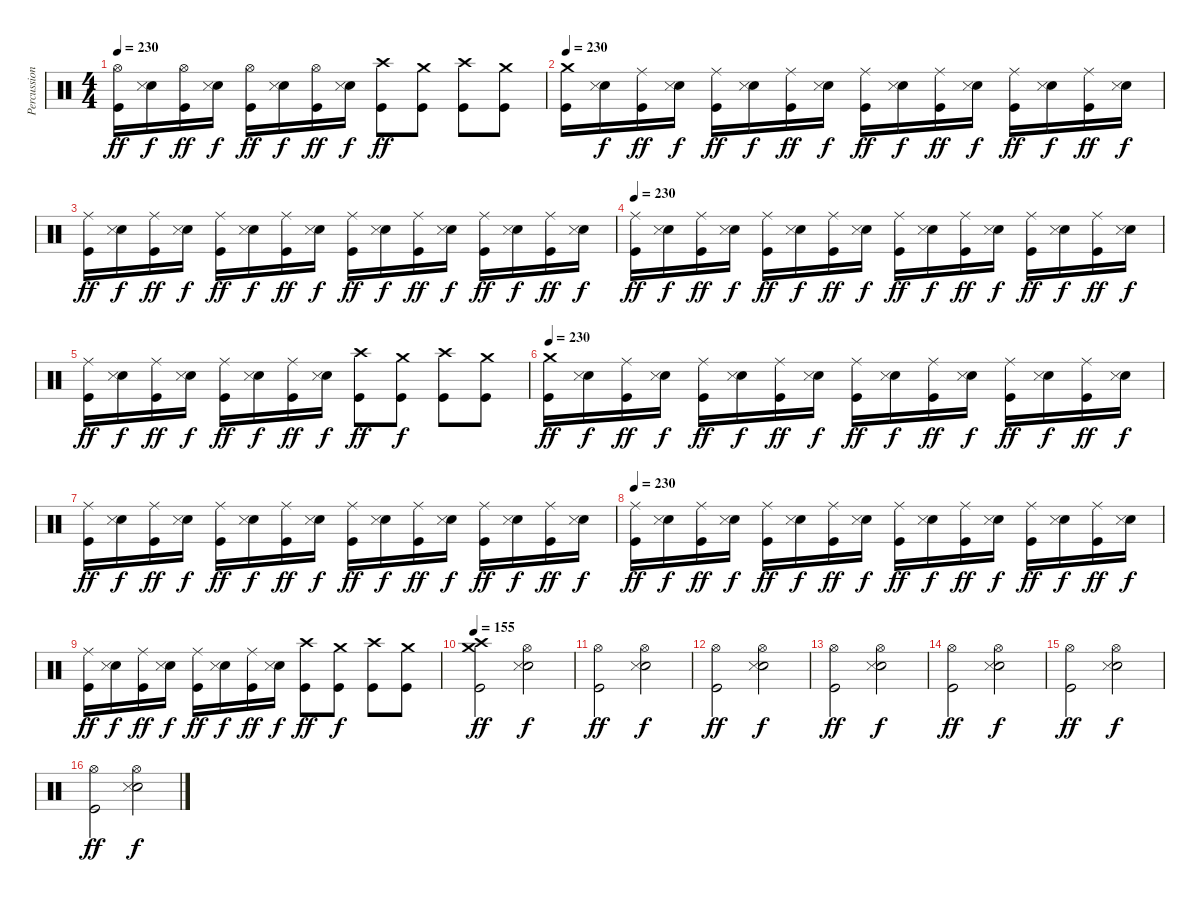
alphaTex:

\track ("Percussions" "Percussion") {instrument percussion}
\staff {score}
\articulation defaults
\ts (4 4)
\tempo 230
\clef neutral
\ks c
("Hi-Hat (open)" "Kick (hit)").16{dy ff} ("Electric Snare (hit)" "Snare (side stick) 3").16{dy f} ("Hi-Hat (open)" "Kick (hit)").16{dy ff} ("Electric Snare (hit)" "Snare (side stick) 3").16{dy f} ("Hi-Hat (open)" "Kick (hit)").16{dy ff} ("Electric Snare (hit)" "Snare (side stick) 3").16{dy f} ("Hi-Hat (open)" "Kick (hit)").16{dy ff} ("Electric Snare (hit)" "Snare (side stick) 3").16{dy f} ("Crash high (hit)" "Kick (hit)").8{dy ff} ("Crash medium (hit)" "Kick (hit)").8 ("Crash high (hit)" "Kick (hit)").8 ("Crash medium (hit)" "Kick (hit)").8 |
\tempo 230
("Crash medium (hit)" "Kick (hit)").16 ("Electric Snare (hit)" "Snare (side stick) 3").16{dy f} ("Ride (middle)" "Kick (hit)").16{dy ff} ("Electric Snare (hit)" "Snare (side stick) 3").16{dy f} ("Ride (middle)" "Kick (hit)").16{dy ff} ("Electric Snare (hit)" "Snare (side stick) 3").16{dy f} ("Ride (middle)" "Kick (hit)").16{dy ff} ("Electric Snare (hit)" "Snare (side stick) 3").16{dy f} ("Ride (middle)" "Kick (hit)").16{dy ff} ("Electric Snare (hit)" "Snare (side stick) 3").16{dy f} ("Ride (middle)" "Kick (hit)").16{dy ff} ("Electric Snare (hit)" "Snare (side stick) 3").16{dy f} ("Ride (middle)" "Kick (hit)").16{dy ff} ("Electric Snare (hit)" "Snare (side stick) 3").16{dy f} ("Ride (middle)" "Kick (hit)").16{dy ff} ("Electric Snare (hit)" "Snare (side stick) 3").16{dy f} |
("Ride (middle)" "Kick (hit)").16{dy ff} ("Electric Snare (hit)" "Snare (side stick) 3").16{dy f} ("Ride (middle)" "Kick (hit)").16{dy ff} ("Electric Snare (hit)" "Snare (side stick) 3").16{dy f} ("Ride (middle)" "Kick (hit)").16{dy ff} ("Electric Snare (hit)" "Snare (side stick) 3").16{dy f} ("Ride (middle)" "Kick (hit)").16{dy ff} ("Electric Snare (hit)" "Snare (side stick) 3").16{dy f} ("Ride (middle)" "Kick (hit)").16{dy ff} ("Electric Snare (hit)" "Snare (side stick) 3").16{dy f} ("Ride (middle)" "Kick (hit)").16{dy ff} ("Electric Snare (hit)" "Snare (side stick) 3").16{dy f} ("Ride (middle)" "Kick (hit)").16{dy ff} ("Electric Snare (hit)" "Snare (side stick) 3").16{dy f} ("Ride (middle)" "Kick (hit)").16{dy ff} ("Electric Snare (hit)" "Snare (side stick) 3").16{dy f} |
\tempo 230
("Ride (middle)" "Kick (hit)").16{dy ff} ("Electric Snare (hit)" "Snare (side stick) 3").16{dy f} ("Ride (middle)" "Kick (hit)").16{dy ff} ("Electric Snare (hit)" "Snare (side stick) 3").16{dy f} ("Ride (middle)" "Kick (hit)").16{dy ff} ("Electric Snare (hit)" "Snare (side stick) 3").16{dy f} ("Ride (middle)" "Kick (hit)").16{dy ff} ("Electric Snare (hit)" "Snare (side stick) 3").16{dy f} ("Ride (middle)" "Kick (hit)").16{dy ff} ("Electric Snare (hit)" "Snare (side stick) 3").16{dy f} ("Ride (middle)" "Kick (hit)").16{dy ff} ("Electric Snare (hit)" "Snare (side stick) 3").16{dy f} ("Ride (middle)" "Kick (hit)").16{dy ff} ("Electric Snare (hit)" "Snare (side stick) 3").16{dy f} ("Ride (middle)" "Kick (hit)").16{dy ff} ("Electric Snare (hit)" "Snare (side stick) 3").16{dy f} |
("Ride (middle)" "Kick (hit)").16{dy ff} ("Electric Snare (hit)" "Snare (side stick) 3").16{dy f} ("Ride (middle)" "Kick (hit)").16{dy ff} ("Electric Snare (hit)" "Snare (side stick) 3").16{dy f} ("Ride (middle)" "Kick (hit)").16{dy ff} ("Electric Snare (hit)" "Snare (side stick) 3").16{dy f} ("Ride (middle)" "Kick (hit)").16{dy ff} ("Electric Snare (hit)" "Snare (side stick) 3").16{dy f} ("Crash high (hit)" "Kick (hit)").8{dy ff} ("Crash medium (hit)" "Kick (hit)").8{dy f} ("Crash high (hit)" "Kick (hit)").8 ("Crash medium (hit)" "Kick (hit)").8 |
\tempo 230
("Crash medium (hit)" "Kick (hit)").16{dy ff} ("Electric Snare (hit)" "Snare (side stick) 3").16{dy f} ("Ride (middle)" "Kick (hit)").16{dy ff} ("Electric Snare (hit)" "Snare (side stick) 3").16{dy f} ("Ride (middle)" "Kick (hit)").16{dy ff} ("Electric Snare (hit)" "Snare (side stick) 3").16{dy f} ("Ride (middle)" "Kick (hit)").16{dy ff} ("Electric Snare (hit)" "Snare (side stick) 3").16{dy f} ("Ride (middle)" "Kick (hit)").16{dy ff} ("Electric Snare (hit)" "Snare (side stick) 3").16{dy f} ("Ride (middle)" "Kick (hit)").16{dy ff} ("Electric Snare (hit)" "Snare (side stick) 3").16{dy f} ("Ride (middle)" "Kick (hit)").16{dy ff} ("Electric Snare (hit)" "Snare (side stick) 3").16{dy f} ("Ride (middle)" "Kick (hit)").16{dy ff} ("Electric Snare (hit)" "Snare (side stick) 3").16{dy f} |
("Ride (middle)" "Kick (hit)").16{dy ff} ("Electric Snare (hit)" "Snare (side stick) 3").16{dy f} ("Ride (middle)" "Kick (hit)").16{dy ff} ("Electric Snare (hit)" "Snare (side stick) 3").16{dy f} ("Ride (middle)" "Kick (hit)").16{dy ff} ("Electric Snare (hit)" "Snare (side stick) 3").16{dy f} ("Ride (middle)" "Kick (hit)").16{dy ff} ("Electric Snare (hit)" "Snare (side stick) 3").16{dy f} ("Ride (middle)" "Kick (hit)").16{dy ff} ("Electric Snare (hit)" "Snare (side stick) 3").16{dy f} ("Ride (middle)" "Kick (hit)").16{dy ff} ("Electric Snare (hit)" "Snare (side stick) 3").16{dy f} ("Ride (middle)" "Kick (hit)").16{dy ff} ("Electric Snare (hit)" "Snare (side stick) 3").16{dy f} ("Ride (middle)" "Kick (hit)").16{dy ff} ("Electric Snare (hit)" "Snare (side stick) 3").16{dy f} |
\tempo 230
("Ride (middle)" "Kick (hit)").16{dy ff} ("Electric Snare (hit)" "Snare (side stick) 3").16{dy f} ("Ride (middle)" "Kick (hit)").16{dy ff} ("Electric Snare (hit)" "Snare (side stick) 3").16{dy f} ("Ride (middle)" "Kick (hit)").16{dy ff} ("Electric Snare (hit)" "Snare (side stick) 3").16{dy f} ("Ride (middle)" "Kick (hit)").16{dy ff} ("Electric Snare (hit)" "Snare (side stick) 3").16{dy f} ("Ride (middle)" "Kick (hit)").16{dy ff} ("Electric Snare (hit)" "Snare (side stick) 3").16{dy f} ("Ride (middle)" "Kick (hit)").16{dy ff} ("Electric Snare (hit)" "Snare (side stick) 3").16{dy f} ("Ride (middle)" "Kick (hit)").16{dy ff} ("Electric Snare (hit)" "Snare (side stick) 3").16{dy f} ("Ride (middle)" "Kick (hit)").16{dy ff} ("Electric Snare (hit)" "Snare (side stick) 3").16{dy f} |
("Ride (middle)" "Kick (hit)").16{dy ff} ("Electric Snare (hit)" "Snare (side stick) 3").16{dy f} ("Ride (middle)" "Kick (hit)").16{dy ff} ("Electric Snare (hit)" "Snare (side stick) 3").16{dy f} ("Ride (middle)" "Kick (hit)").16{dy ff} ("Electric Snare (hit)" "Snare (side stick) 3").16{dy f} ("Ride (middle)" "Kick (hit)").16{dy ff} ("Electric Snare (hit)" "Snare (side stick) 3").16{dy f} ("Crash high (hit)" "Kick (hit)").8{dy ff} ("Crash medium (hit)" "Kick (hit)").8{dy f} ("Crash high (hit)" "Kick (hit)").8 ("Crash medium (hit)" "Kick (hit)").8 |
\tempo 155
("Crash high (hit)" "Crash medium (hit)" "Kick (hit)").2{dy ff} ("Hi-Hat (open)" "Electric Snare (hit)" "Snare (side stick) 3").2{dy f} |
("Hi-Hat (open)" "Kick (hit)").2{dy ff} ("Hi-Hat (open)" "Electric Snare (hit)" "Snare (side stick) 3").2{dy f} |
("Hi-Hat (open)" "Kick (hit)").2{dy ff} ("Hi-Hat (open)" "Electric Snare (hit)" "Snare (side stick) 3").2{dy f} |
("Hi-Hat (open)" "Kick (hit)").2{dy ff} ("Hi-Hat (open)" "Electric Snare (hit)" "Snare (side stick) 3").2{dy f} |
("Hi-Hat (open)" "Kick (hit)").2{dy ff} ("Hi-Hat (open)" "Electric Snare (hit)" "Snare (side stick) 3").2{dy f} |
("Hi-Hat (open)" "Kick (hit)").2{dy ff} ("Hi-Hat (open)" "Electric Snare (hit)" "Snare (side stick) 3").2{dy f} |
("Hi-Hat (open)" "Kick (hit)").2{dy ff} ("Hi-Hat (open)" "Electric Snare (hit)" "Snare (side stick) 3").2{dy f}
